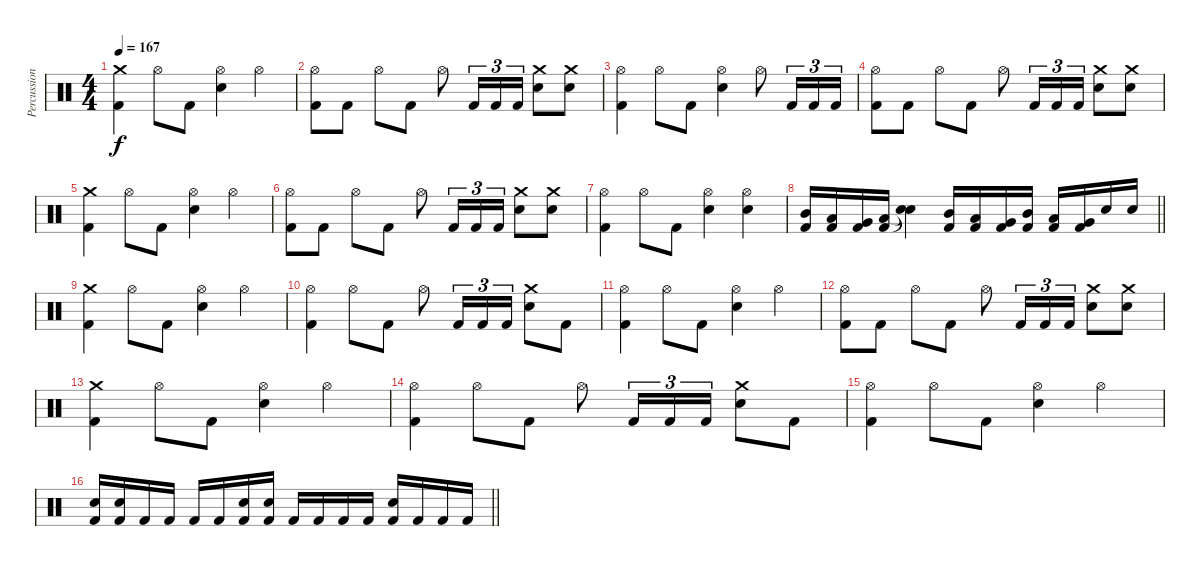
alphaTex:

\track ("Percussion" "Percussion") {instrument percussion}
\staff {score}
\articulation defaults
\ts (4 4)
\tempo 167
\clef neutral
\ks c
("Crash medium (hit)" "Kick (hit) 2").4{dy f} "Hi-Hat (open)".8 "Kick (hit) 2".8 ("Hi-Hat (open)" "Snare (hit) 2").4 "Hi-Hat (open)".4 |
("Hi-Hat (open)" "Kick (hit) 2").8 "Kick (hit) 2".8 "Hi-Hat (open)".8 "Kick (hit) 2".8 "Hi-Hat (open)".8 "Kick (hit) 2".16{tu (3 2)} "Kick (hit) 2".16{tu (3 2)} "Kick (hit) 2".16{tu (3 2)} ("Crash medium (hit)" "Snare (hit) 2").8 ("Crash medium (hit)" "Snare (hit) 2").8 |
("Hi-Hat (open)" "Kick (hit) 2").4 "Hi-Hat (open)".8 "Kick (hit) 2".8 ("Hi-Hat (open)" "Snare (hit) 2").4 "Hi-Hat (open)".8 "Kick (hit) 2".16{tu (3 2)} "Kick (hit) 2".16{tu (3 2)} "Kick (hit) 2".16{tu (3 2)} |
("Hi-Hat (open)" "Kick (hit) 2").8 "Kick (hit) 2".8 "Hi-Hat (open)".8 "Kick (hit) 2".8 "Hi-Hat (open)".8 "Kick (hit) 2".16{tu (3 2)} "Kick (hit) 2".16{tu (3 2)} "Kick (hit) 2".16{tu (3 2)} ("Crash medium (hit)" "Snare (hit) 2").8 ("Crash medium (hit)" "Snare (hit) 2").8 |
("Crash medium (hit)" "Kick (hit) 2").4 "Hi-Hat (open)".8 "Kick (hit) 2".8 ("Hi-Hat (open)" "Snare (hit) 2").4 "Hi-Hat (open)".4 |
("Hi-Hat (open)" "Kick (hit) 2").8 "Kick (hit) 2".8 "Hi-Hat (open)".8 "Kick (hit) 2".8 "Hi-Hat (open)".8 "Kick (hit) 2".16{tu (3 2)} "Kick (hit) 2".16{tu (3 2)} "Kick (hit) 2".16{tu (3 2)} ("Crash medium (hit)" "Snare (hit) 2").8 ("Crash medium (hit)" "Snare (hit) 2").8 |
("Hi-Hat (open)" "Kick (hit) 2").4 "Hi-Hat (open)".8 "Kick (hit) 2".8 ("Hi-Hat (open)" "Snare (hit) 2").4 ("Hi-Hat (open)" "Snare (hit) 2").4 |
\barLineRight lightlight
("Mid Tom (hit)" "Kick (hit) 2").16 ("Low Tom (hit)" "Kick (hit) 2").16 ("Very Low Tom (hit)" "Kick (hit) 2").16 ("Low Floor Tom (hit)" "Kick (hit) 2").16 ("Snare (hit)"{t} "Snare (hit)"{t}).4 ("Mid Tom (hit)" "Kick (hit) 2").16 ("Low Tom (hit)" "Kick (hit) 2").16 ("Very Low Tom (hit)" "Kick (hit) 2").16 ("Mid Tom (hit)" "Kick (hit) 2").16 ("Low Tom (hit)" "Kick (hit) 2").16 ("Very Low Tom (hit)" "Kick (hit) 2").16 "Snare (hit) 2".16 "Snare (hit) 2".16 |
("Crash medium (hit)" "Kick (hit) 2").4 "Hi-Hat (open)".8 "Kick (hit) 2".8 ("Hi-Hat (open)" "Snare (hit) 2").4 "Hi-Hat (open)".4 |
("Hi-Hat (open)" "Kick (hit) 2").4 "Hi-Hat (open)".8 "Kick (hit) 2".8 "Hi-Hat (open)".8 "Kick (hit) 2".16{tu (3 2)} "Kick (hit) 2".16{tu (3 2)} "Kick (hit) 2".16{tu (3 2)} ("Crash medium (hit)" "Snare (hit) 2").8 "Kick (hit) 2".8 |
("Hi-Hat (open)" "Kick (hit) 2").4 "Hi-Hat (open)".8 "Kick (hit) 2".8 ("Hi-Hat (open)" "Snare (hit) 2").4 "Hi-Hat (open)".4 |
("Hi-Hat (open)" "Kick (hit) 2").8 "Kick (hit) 2".8 "Hi-Hat (open)".8 "Kick (hit) 2".8 "Hi-Hat (open)".8 "Kick (hit) 2".16{tu (3 2)} "Kick (hit) 2".16{tu (3 2)} "Kick (hit) 2".16{tu (3 2)} ("Crash medium (hit)" "Snare (hit) 2").8 ("Crash medium (hit)" "Snare (hit) 2").8 |
("Crash medium (hit)" "Kick (hit) 2").4 "Hi-Hat (open)".8 "Kick (hit) 2".8 ("Hi-Hat (open)" "Snare (hit) 2").4 "Hi-Hat (open)".4 |
("Hi-Hat (open)" "Kick (hit) 2").4 "Hi-Hat (open)".8 "Kick (hit) 2".8 "Hi-Hat (open)".8 "Kick (hit) 2".16{tu (3 2)} "Kick (hit) 2".16{tu (3 2)} "Kick (hit) 2".16{tu (3 2)} ("Crash medium (hit)" "Snare (hit) 2").8 "Kick (hit) 2".8 |
("Hi-Hat (open)" "Kick (hit) 2").4 "Hi-Hat (open)".8 "Kick (hit) 2".8 ("Hi-Hat (open)" "Snare (hit) 2").4 "Hi-Hat (open)".4 |
\barLineRight lightlight
("Snare (hit) 2" "Kick (hit) 2").16 ("Snare (hit) 2" "Kick (hit) 2").16 "Kick (hit) 2".16 "Kick (hit) 2".16 "Kick (hit) 2".16 "Kick (hit) 2".16 ("Snare (hit) 2" "Kick (hit) 2").16 ("Snare (hit) 2" "Kick (hit) 2").16 "Kick (hit) 2".16 "Kick (hit) 2".16 "Kick (hit) 2".16 "Kick (hit) 2".16 ("Snare (hit) 2" "Kick (hit) 2").16 "Kick (hit) 2".16 "Kick (hit) 2".16 "Kick (hit) 2".16
